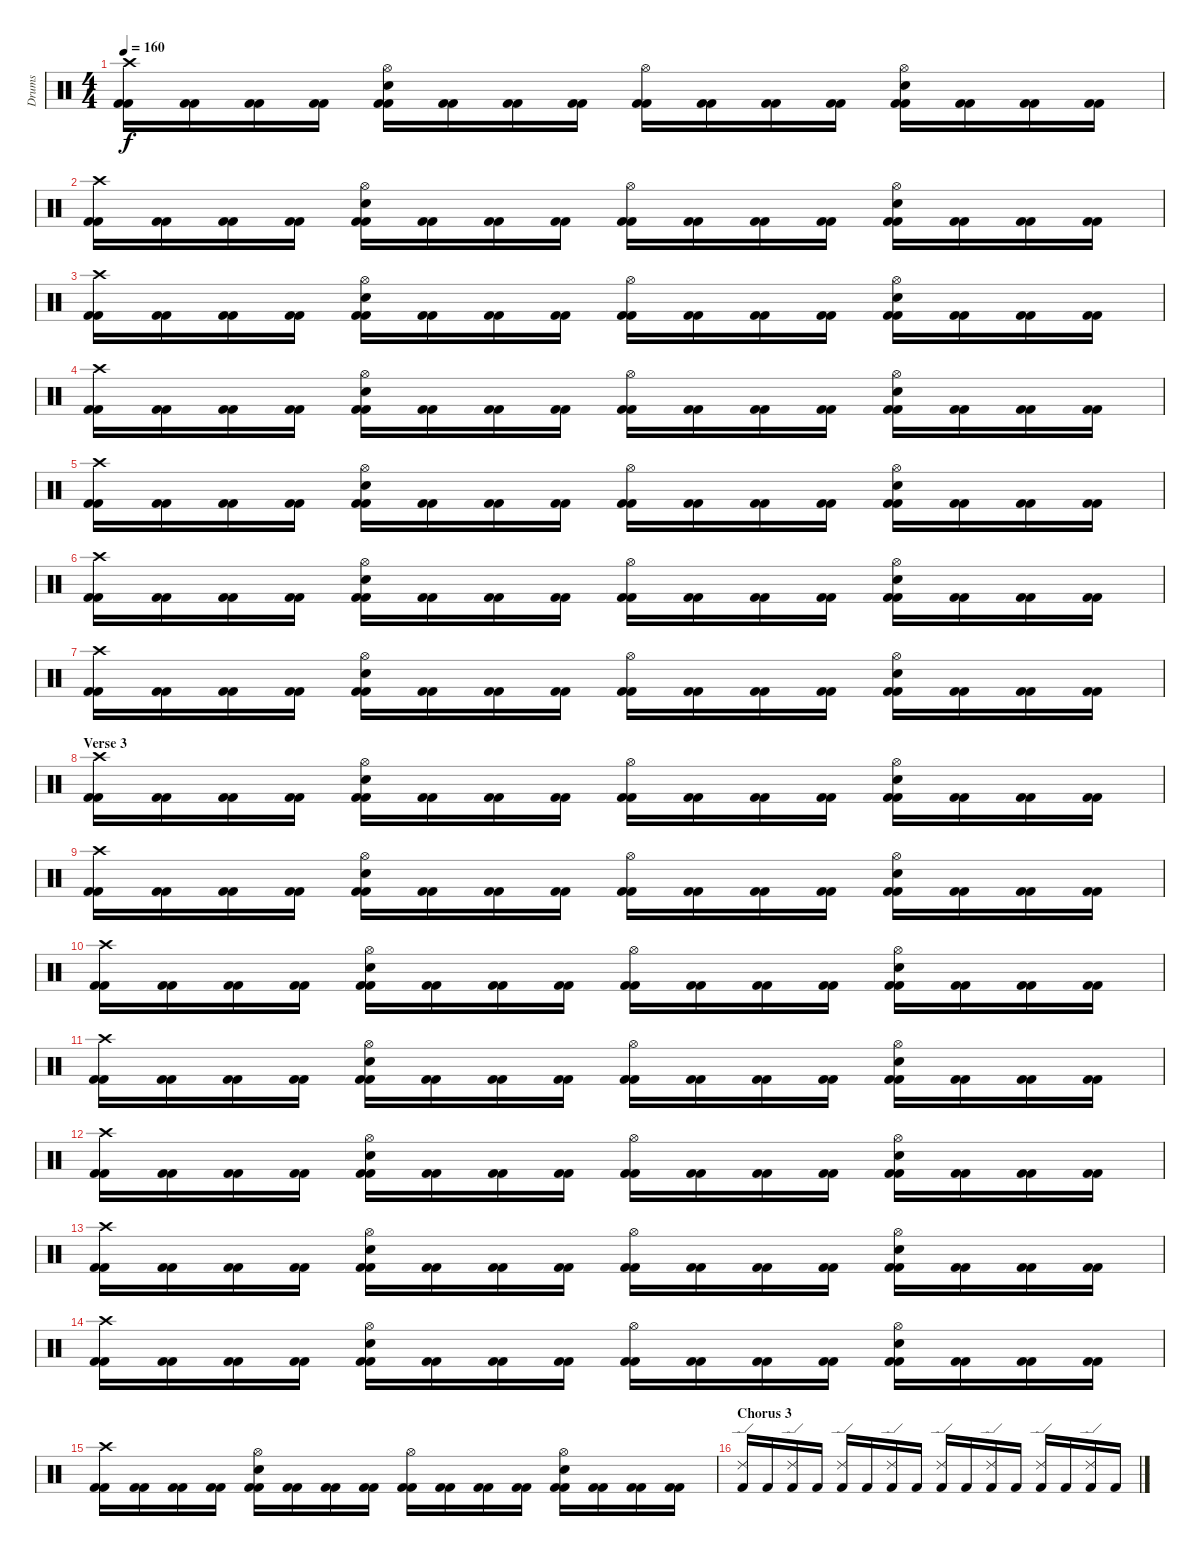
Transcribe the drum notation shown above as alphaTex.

\track ("Drums" "Drums") {instrument percussion}
\staff {score}
\articulation defaults
\ts (4 4)
\tempo 160
\clef neutral
\ks c
("Kick (hit) 2" "Kick (hit) 2" "Crash high (hit)").16{dy f} ("Kick (hit) 2" "Kick (hit) 2").16 ("Kick (hit) 2" "Kick (hit) 2").16 ("Kick (hit) 2" "Kick (hit) 2").16 ("Kick (hit) 2" "Kick (hit) 2" "Electric Snare (hit)" "Hi-Hat (open)").16 ("Kick (hit) 2" "Kick (hit) 2").16 ("Kick (hit) 2" "Kick (hit) 2").16 ("Kick (hit) 2" "Kick (hit) 2").16 ("Kick (hit) 2" "Kick (hit) 2" "Hi-Hat (open)").16 ("Kick (hit) 2" "Kick (hit) 2").16 ("Kick (hit) 2" "Kick (hit) 2").16 ("Kick (hit) 2" "Kick (hit) 2").16 ("Kick (hit) 2" "Kick (hit) 2" "Electric Snare (hit)" "Hi-Hat (open)").16 ("Kick (hit) 2" "Kick (hit) 2").16 ("Kick (hit) 2" "Kick (hit) 2").16 ("Kick (hit) 2" "Kick (hit) 2").16 |
("Kick (hit) 2" "Kick (hit) 2" "Crash high (hit)").16 ("Kick (hit) 2" "Kick (hit) 2").16 ("Kick (hit) 2" "Kick (hit) 2").16 ("Kick (hit) 2" "Kick (hit) 2").16 ("Kick (hit) 2" "Kick (hit) 2" "Electric Snare (hit)" "Hi-Hat (open)").16 ("Kick (hit) 2" "Kick (hit) 2").16 ("Kick (hit) 2" "Kick (hit) 2").16 ("Kick (hit) 2" "Kick (hit) 2").16 ("Kick (hit) 2" "Kick (hit) 2" "Hi-Hat (open)").16 ("Kick (hit) 2" "Kick (hit) 2").16 ("Kick (hit) 2" "Kick (hit) 2").16 ("Kick (hit) 2" "Kick (hit) 2").16 ("Kick (hit) 2" "Kick (hit) 2" "Electric Snare (hit)" "Hi-Hat (open)").16 ("Kick (hit) 2" "Kick (hit) 2").16 ("Kick (hit) 2" "Kick (hit) 2").16 ("Kick (hit) 2" "Kick (hit) 2").16 |
("Kick (hit) 2" "Kick (hit) 2" "Crash high (hit)").16 ("Kick (hit) 2" "Kick (hit) 2").16 ("Kick (hit) 2" "Kick (hit) 2").16 ("Kick (hit) 2" "Kick (hit) 2").16 ("Kick (hit) 2" "Kick (hit) 2" "Electric Snare (hit)" "Hi-Hat (open)").16 ("Kick (hit) 2" "Kick (hit) 2").16 ("Kick (hit) 2" "Kick (hit) 2").16 ("Kick (hit) 2" "Kick (hit) 2").16 ("Kick (hit) 2" "Kick (hit) 2" "Hi-Hat (open)").16 ("Kick (hit) 2" "Kick (hit) 2").16 ("Kick (hit) 2" "Kick (hit) 2").16 ("Kick (hit) 2" "Kick (hit) 2").16 ("Kick (hit) 2" "Kick (hit) 2" "Electric Snare (hit)" "Hi-Hat (open)").16 ("Kick (hit) 2" "Kick (hit) 2").16 ("Kick (hit) 2" "Kick (hit) 2").16 ("Kick (hit) 2" "Kick (hit) 2").16 |
("Kick (hit) 2" "Kick (hit) 2" "Crash high (hit)").16 ("Kick (hit) 2" "Kick (hit) 2").16 ("Kick (hit) 2" "Kick (hit) 2").16 ("Kick (hit) 2" "Kick (hit) 2").16 ("Kick (hit) 2" "Kick (hit) 2" "Electric Snare (hit)" "Hi-Hat (open)").16 ("Kick (hit) 2" "Kick (hit) 2").16 ("Kick (hit) 2" "Kick (hit) 2").16 ("Kick (hit) 2" "Kick (hit) 2").16 ("Kick (hit) 2" "Kick (hit) 2" "Hi-Hat (open)").16 ("Kick (hit) 2" "Kick (hit) 2").16 ("Kick (hit) 2" "Kick (hit) 2").16 ("Kick (hit) 2" "Kick (hit) 2").16 ("Kick (hit) 2" "Kick (hit) 2" "Electric Snare (hit)" "Hi-Hat (open)").16 ("Kick (hit) 2" "Kick (hit) 2").16 ("Kick (hit) 2" "Kick (hit) 2").16 ("Kick (hit) 2" "Kick (hit) 2").16 |
("Kick (hit) 2" "Kick (hit) 2" "Crash high (hit)").16 ("Kick (hit) 2" "Kick (hit) 2").16 ("Kick (hit) 2" "Kick (hit) 2").16 ("Kick (hit) 2" "Kick (hit) 2").16 ("Kick (hit) 2" "Kick (hit) 2" "Electric Snare (hit)" "Hi-Hat (open)").16 ("Kick (hit) 2" "Kick (hit) 2").16 ("Kick (hit) 2" "Kick (hit) 2").16 ("Kick (hit) 2" "Kick (hit) 2").16 ("Kick (hit) 2" "Kick (hit) 2" "Hi-Hat (open)").16 ("Kick (hit) 2" "Kick (hit) 2").16 ("Kick (hit) 2" "Kick (hit) 2").16 ("Kick (hit) 2" "Kick (hit) 2").16 ("Kick (hit) 2" "Kick (hit) 2" "Electric Snare (hit)" "Hi-Hat (open)").16 ("Kick (hit) 2" "Kick (hit) 2").16 ("Kick (hit) 2" "Kick (hit) 2").16 ("Kick (hit) 2" "Kick (hit) 2").16 |
("Kick (hit) 2" "Kick (hit) 2" "Crash high (hit)").16 ("Kick (hit) 2" "Kick (hit) 2").16 ("Kick (hit) 2" "Kick (hit) 2").16 ("Kick (hit) 2" "Kick (hit) 2").16 ("Kick (hit) 2" "Kick (hit) 2" "Electric Snare (hit)" "Hi-Hat (open)").16 ("Kick (hit) 2" "Kick (hit) 2").16 ("Kick (hit) 2" "Kick (hit) 2").16 ("Kick (hit) 2" "Kick (hit) 2").16 ("Kick (hit) 2" "Kick (hit) 2" "Hi-Hat (open)").16 ("Kick (hit) 2" "Kick (hit) 2").16 ("Kick (hit) 2" "Kick (hit) 2").16 ("Kick (hit) 2" "Kick (hit) 2").16 ("Kick (hit) 2" "Kick (hit) 2" "Electric Snare (hit)" "Hi-Hat (open)").16 ("Kick (hit) 2" "Kick (hit) 2").16 ("Kick (hit) 2" "Kick (hit) 2").16 ("Kick (hit) 2" "Kick (hit) 2").16 |
("Kick (hit) 2" "Kick (hit) 2" "Crash high (hit)").16 ("Kick (hit) 2" "Kick (hit) 2").16 ("Kick (hit) 2" "Kick (hit) 2").16 ("Kick (hit) 2" "Kick (hit) 2").16 ("Kick (hit) 2" "Kick (hit) 2" "Electric Snare (hit)" "Hi-Hat (open)").16 ("Kick (hit) 2" "Kick (hit) 2").16 ("Kick (hit) 2" "Kick (hit) 2").16 ("Kick (hit) 2" "Kick (hit) 2").16 ("Kick (hit) 2" "Kick (hit) 2" "Hi-Hat (open)").16 ("Kick (hit) 2" "Kick (hit) 2").16 ("Kick (hit) 2" "Kick (hit) 2").16 ("Kick (hit) 2" "Kick (hit) 2").16 ("Kick (hit) 2" "Kick (hit) 2" "Electric Snare (hit)" "Hi-Hat (open)").16 ("Kick (hit) 2" "Kick (hit) 2").16 ("Kick (hit) 2" "Kick (hit) 2").16 ("Kick (hit) 2" "Kick (hit) 2").16 |
\section ("" "Verse 3")
("Kick (hit) 2" "Kick (hit) 2" "Crash high (hit)").16 ("Kick (hit) 2" "Kick (hit) 2").16 ("Kick (hit) 2" "Kick (hit) 2").16 ("Kick (hit) 2" "Kick (hit) 2").16 ("Kick (hit) 2" "Kick (hit) 2" "Electric Snare (hit)" "Hi-Hat (open)").16 ("Kick (hit) 2" "Kick (hit) 2").16 ("Kick (hit) 2" "Kick (hit) 2").16 ("Kick (hit) 2" "Kick (hit) 2").16 ("Kick (hit) 2" "Kick (hit) 2" "Hi-Hat (open)").16 ("Kick (hit) 2" "Kick (hit) 2").16 ("Kick (hit) 2" "Kick (hit) 2").16 ("Kick (hit) 2" "Kick (hit) 2").16 ("Kick (hit) 2" "Kick (hit) 2" "Electric Snare (hit)" "Hi-Hat (open)").16 ("Kick (hit) 2" "Kick (hit) 2").16 ("Kick (hit) 2" "Kick (hit) 2").16 ("Kick (hit) 2" "Kick (hit) 2").16 |
("Kick (hit) 2" "Kick (hit) 2" "Crash high (hit)").16 ("Kick (hit) 2" "Kick (hit) 2").16 ("Kick (hit) 2" "Kick (hit) 2").16 ("Kick (hit) 2" "Kick (hit) 2").16 ("Kick (hit) 2" "Kick (hit) 2" "Electric Snare (hit)" "Hi-Hat (open)").16 ("Kick (hit) 2" "Kick (hit) 2").16 ("Kick (hit) 2" "Kick (hit) 2").16 ("Kick (hit) 2" "Kick (hit) 2").16 ("Kick (hit) 2" "Kick (hit) 2" "Hi-Hat (open)").16 ("Kick (hit) 2" "Kick (hit) 2").16 ("Kick (hit) 2" "Kick (hit) 2").16 ("Kick (hit) 2" "Kick (hit) 2").16 ("Kick (hit) 2" "Kick (hit) 2" "Electric Snare (hit)" "Hi-Hat (open)").16 ("Kick (hit) 2" "Kick (hit) 2").16 ("Kick (hit) 2" "Kick (hit) 2").16 ("Kick (hit) 2" "Kick (hit) 2").16 |
("Kick (hit) 2" "Kick (hit) 2" "Crash high (hit)").16 ("Kick (hit) 2" "Kick (hit) 2").16 ("Kick (hit) 2" "Kick (hit) 2").16 ("Kick (hit) 2" "Kick (hit) 2").16 ("Kick (hit) 2" "Kick (hit) 2" "Electric Snare (hit)" "Hi-Hat (open)").16 ("Kick (hit) 2" "Kick (hit) 2").16 ("Kick (hit) 2" "Kick (hit) 2").16 ("Kick (hit) 2" "Kick (hit) 2").16 ("Kick (hit) 2" "Kick (hit) 2" "Hi-Hat (open)").16 ("Kick (hit) 2" "Kick (hit) 2").16 ("Kick (hit) 2" "Kick (hit) 2").16 ("Kick (hit) 2" "Kick (hit) 2").16 ("Kick (hit) 2" "Kick (hit) 2" "Electric Snare (hit)" "Hi-Hat (open)").16 ("Kick (hit) 2" "Kick (hit) 2").16 ("Kick (hit) 2" "Kick (hit) 2").16 ("Kick (hit) 2" "Kick (hit) 2").16 |
("Kick (hit) 2" "Kick (hit) 2" "Crash high (hit)").16 ("Kick (hit) 2" "Kick (hit) 2").16 ("Kick (hit) 2" "Kick (hit) 2").16 ("Kick (hit) 2" "Kick (hit) 2").16 ("Kick (hit) 2" "Kick (hit) 2" "Electric Snare (hit)" "Hi-Hat (open)").16 ("Kick (hit) 2" "Kick (hit) 2").16 ("Kick (hit) 2" "Kick (hit) 2").16 ("Kick (hit) 2" "Kick (hit) 2").16 ("Kick (hit) 2" "Kick (hit) 2" "Hi-Hat (open)").16 ("Kick (hit) 2" "Kick (hit) 2").16 ("Kick (hit) 2" "Kick (hit) 2").16 ("Kick (hit) 2" "Kick (hit) 2").16 ("Kick (hit) 2" "Kick (hit) 2" "Electric Snare (hit)" "Hi-Hat (open)").16 ("Kick (hit) 2" "Kick (hit) 2").16 ("Kick (hit) 2" "Kick (hit) 2").16 ("Kick (hit) 2" "Kick (hit) 2").16 |
("Kick (hit) 2" "Kick (hit) 2" "Crash high (hit)").16 ("Kick (hit) 2" "Kick (hit) 2").16 ("Kick (hit) 2" "Kick (hit) 2").16 ("Kick (hit) 2" "Kick (hit) 2").16 ("Kick (hit) 2" "Kick (hit) 2" "Electric Snare (hit)" "Hi-Hat (open)").16 ("Kick (hit) 2" "Kick (hit) 2").16 ("Kick (hit) 2" "Kick (hit) 2").16 ("Kick (hit) 2" "Kick (hit) 2").16 ("Kick (hit) 2" "Kick (hit) 2" "Hi-Hat (open)").16 ("Kick (hit) 2" "Kick (hit) 2").16 ("Kick (hit) 2" "Kick (hit) 2").16 ("Kick (hit) 2" "Kick (hit) 2").16 ("Kick (hit) 2" "Kick (hit) 2" "Electric Snare (hit)" "Hi-Hat (open)").16 ("Kick (hit) 2" "Kick (hit) 2").16 ("Kick (hit) 2" "Kick (hit) 2").16 ("Kick (hit) 2" "Kick (hit) 2").16 |
("Kick (hit) 2" "Kick (hit) 2" "Crash high (hit)").16 ("Kick (hit) 2" "Kick (hit) 2").16 ("Kick (hit) 2" "Kick (hit) 2").16 ("Kick (hit) 2" "Kick (hit) 2").16 ("Kick (hit) 2" "Kick (hit) 2" "Electric Snare (hit)" "Hi-Hat (open)").16 ("Kick (hit) 2" "Kick (hit) 2").16 ("Kick (hit) 2" "Kick (hit) 2").16 ("Kick (hit) 2" "Kick (hit) 2").16 ("Kick (hit) 2" "Kick (hit) 2" "Hi-Hat (open)").16 ("Kick (hit) 2" "Kick (hit) 2").16 ("Kick (hit) 2" "Kick (hit) 2").16 ("Kick (hit) 2" "Kick (hit) 2").16 ("Kick (hit) 2" "Kick (hit) 2" "Electric Snare (hit)" "Hi-Hat (open)").16 ("Kick (hit) 2" "Kick (hit) 2").16 ("Kick (hit) 2" "Kick (hit) 2").16 ("Kick (hit) 2" "Kick (hit) 2").16 |
("Kick (hit) 2" "Kick (hit) 2" "Crash high (hit)").16 ("Kick (hit) 2" "Kick (hit) 2").16 ("Kick (hit) 2" "Kick (hit) 2").16 ("Kick (hit) 2" "Kick (hit) 2").16 ("Kick (hit) 2" "Kick (hit) 2" "Electric Snare (hit)" "Hi-Hat (open)").16 ("Kick (hit) 2" "Kick (hit) 2").16 ("Kick (hit) 2" "Kick (hit) 2").16 ("Kick (hit) 2" "Kick (hit) 2").16 ("Kick (hit) 2" "Kick (hit) 2" "Hi-Hat (open)").16 ("Kick (hit) 2" "Kick (hit) 2").16 ("Kick (hit) 2" "Kick (hit) 2").16 ("Kick (hit) 2" "Kick (hit) 2").16 ("Kick (hit) 2" "Kick (hit) 2" "Electric Snare (hit)" "Hi-Hat (open)").16 ("Kick (hit) 2" "Kick (hit) 2").16 ("Kick (hit) 2" "Kick (hit) 2").16 ("Kick (hit) 2" "Kick (hit) 2").16 |
("Kick (hit) 2" "Kick (hit) 2" "Crash high (hit)").16 ("Kick (hit) 2" "Kick (hit) 2").16 ("Kick (hit) 2" "Kick (hit) 2").16 ("Kick (hit) 2" "Kick (hit) 2").16 ("Kick (hit) 2" "Kick (hit) 2" "Electric Snare (hit)" "Hi-Hat (open)").16 ("Kick (hit) 2" "Kick (hit) 2").16 ("Kick (hit) 2" "Kick (hit) 2").16 ("Kick (hit) 2" "Kick (hit) 2").16 ("Kick (hit) 2" "Kick (hit) 2" "Hi-Hat (open)").16 ("Kick (hit) 2" "Kick (hit) 2").16 ("Kick (hit) 2" "Kick (hit) 2").16 ("Kick (hit) 2" "Kick (hit) 2").16 ("Kick (hit) 2" "Kick (hit) 2" "Electric Snare (hit)" "Hi-Hat (open)").16 ("Kick (hit) 2" "Kick (hit) 2").16 ("Kick (hit) 2" "Kick (hit) 2").16 ("Kick (hit) 2" "Kick (hit) 2").16 |
\section ("" "Chorus 3")
("Kick (hit) 2" "Ride (edge) 2").16 "Kick (hit) 2".16 ("Kick (hit) 2" "Ride (edge) 2").16 "Kick (hit) 2".16 ("Kick (hit) 2" "Ride (edge) 2").16 "Kick (hit) 2".16 ("Kick (hit) 2" "Ride (edge) 2").16 "Kick (hit) 2".16 ("Kick (hit) 2" "Ride (edge) 2").16 "Kick (hit) 2".16 ("Kick (hit) 2" "Ride (edge) 2").16 "Kick (hit) 2".16 ("Kick (hit) 2" "Ride (edge) 2").16 "Kick (hit) 2".16 ("Kick (hit) 2" "Ride (edge) 2").16 "Kick (hit) 2".16
